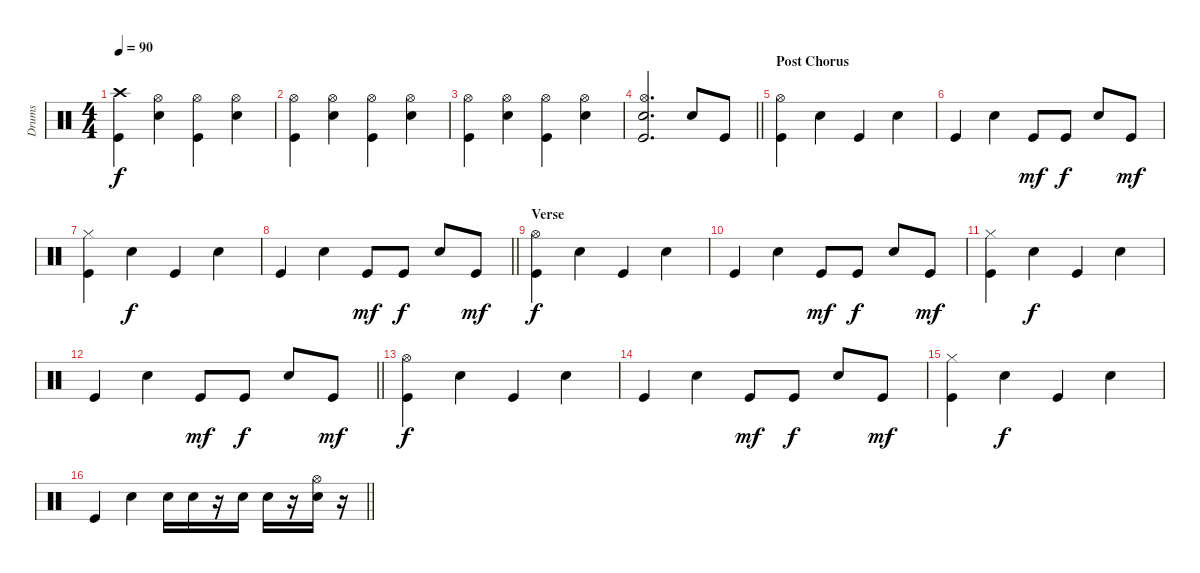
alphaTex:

\track ("Drums" "Drums") {instrument percussion}
\staff {score}
\articulation defaults
\ts (4 4)
\tempo 90
\clef neutral
\ks c
("Crash high (hit)" "Kick (hit)").4{dy f} ("Hi-Hat (open)" "Snare (hit) 2").4 ("Hi-Hat (open)" "Kick (hit)").4 ("Hi-Hat (open)" "Snare (hit) 2").4 |
("Hi-Hat (open)" "Kick (hit)").4 ("Hi-Hat (open)" "Snare (hit) 2").4 ("Hi-Hat (open)" "Kick (hit)").4 ("Hi-Hat (open)" "Snare (hit) 2").4 |
("Hi-Hat (open)" "Kick (hit)").4 ("Hi-Hat (open)" "Snare (hit) 2").4 ("Hi-Hat (open)" "Kick (hit)").4 ("Hi-Hat (open)" "Snare (hit) 2").4 |
\barLineRight lightlight
("Hi-Hat (open)" "Snare (hit) 2" "Kick (hit)").2{d} "Snare (hit) 2".8 "Kick (hit)".8 |
\section ("" "Post Chorus")
("Hi-Hat (open)" "Kick (hit)").4 "Snare (hit) 2".4 "Kick (hit)".4 "Snare (hit) 2".4 |
"Kick (hit)".4 "Snare (hit) 2".4 "Kick (hit)".8{dy mf} "Kick (hit)".8{dy f} "Snare (hit) 2".8 "Kick (hit)".8{dy mf} |
("Hi-Hat (closed)" "Kick (hit)").4 "Snare (hit) 2".4{dy f} "Kick (hit)".4 "Snare (hit) 2".4 |
\barLineRight lightlight "Kick (hit)".4 "Snare (hit) 2".4 "Kick (hit)".8{dy mf} "Kick (hit)".8{dy f} "Snare (hit) 2".8 "Kick (hit)".8{dy mf}
|
\section ("" "Verse")
("Hi-Hat (open)" "Kick (hit)").4{dy f} "Snare (hit) 2".4 "Kick (hit)".4 "Snare (hit) 2".4 |
"Kick (hit)".4 "Snare (hit) 2".4 "Kick (hit)".8{dy mf} "Kick (hit)".8{dy f} "Snare (hit) 2".8 "Kick (hit)".8{dy mf} |
("Hi-Hat (closed)" "Kick (hit)").4 "Snare (hit) 2".4{dy f} "Kick (hit)".4 "Snare (hit) 2".4 |
\barLineRight lightlight "Kick (hit)".4 "Snare (hit) 2".4 "Kick (hit)".8{dy mf} "Kick (hit)".8{dy f} "Snare (hit) 2".8 "Kick (hit)".8{dy mf}
|
("Hi-Hat (open)" "Kick (hit)").4{dy f} "Snare (hit) 2".4 "Kick (hit)".4 "Snare (hit) 2".4 |
"Kick (hit)".4 "Snare (hit) 2".4 "Kick (hit)".8{dy mf} "Kick (hit)".8{dy f} "Snare (hit) 2".8 "Kick (hit)".8{dy mf} |
("Hi-Hat (closed)" "Kick (hit)").4 "Snare (hit) 2".4{dy f} "Kick (hit)".4 "Snare (hit) 2".4 |
\barLineRight lightlight "Kick (hit)".4 "Snare (hit) 2".4 "Snare (hit) 2".16 "Snare (hit) 2".16
r.16 "Snare (hit) 2".16 "Snare (hit) 2".16 r.16 ("Hi-Hat (open)" "Snare (hit) 2").16 r.16
